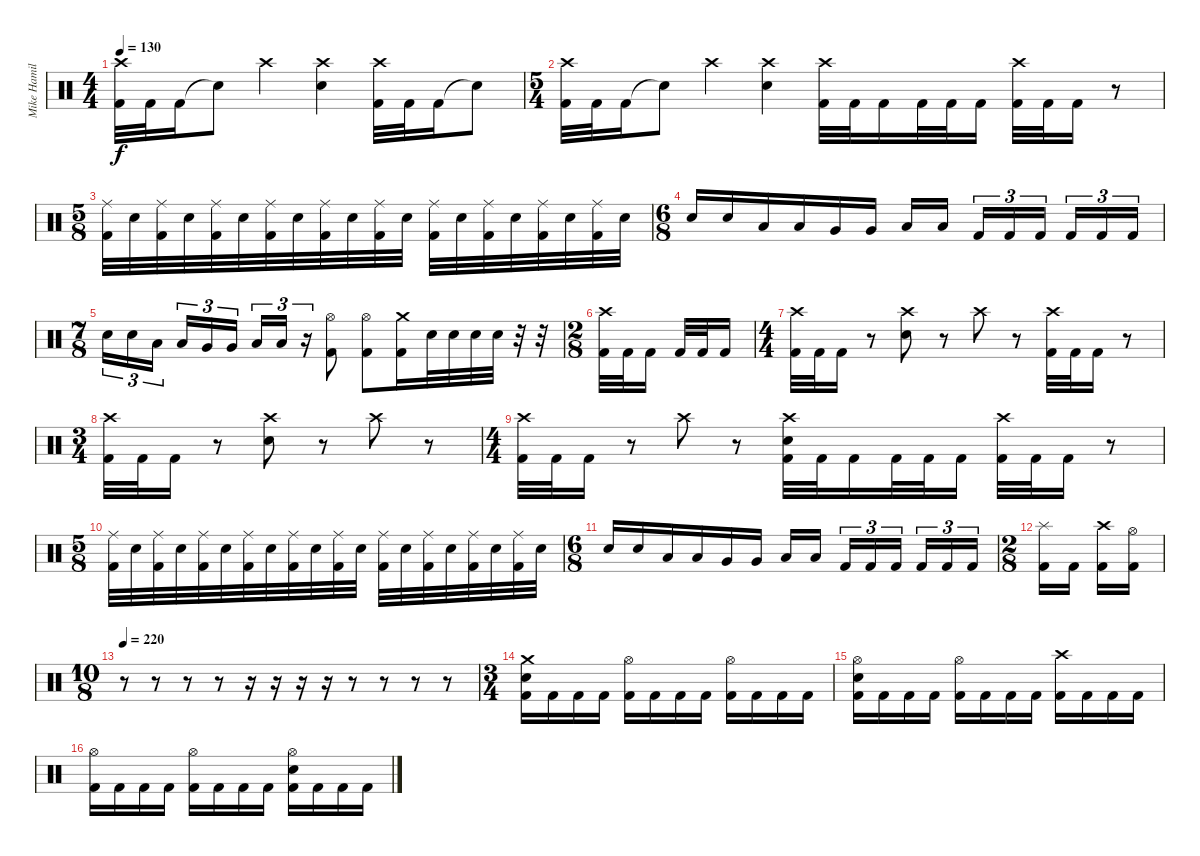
\track ("Mike Hamilton" "Mike Hamil") {instrument percussion}
\staff {score}
\articulation defaults
\ts (4 4)
\tempo 130
\clef neutral
\ks c
("Crash high (hit)" "Kick (hit) 2").32{dy f} "Kick (hit) 2".32 "Kick (hit) 2".16 "Snare (hit)"{t}.8 "Crash high (hit)".4 ("Crash high (hit)" "Electric Snare (hit)").4 ("Crash high (hit)" "Kick (hit) 2").32 "Kick (hit) 2".32 "Kick (hit) 2".16 "Snare (hit)"{t}.8 |
\ts (5 4)
("Crash high (hit)" "Kick (hit) 2").32 "Kick (hit) 2".32 "Kick (hit) 2".16 "Snare (hit)"{t}.8 "Crash high (hit)".4 ("Crash high (hit)" "Electric Snare (hit)").4 ("Crash high (hit)" "Kick (hit) 2").32 "Kick (hit) 2".32 "Kick (hit) 2".16 "Kick (hit) 2".32 "Kick (hit) 2".32 "Kick (hit) 2".16 ("Crash high (hit)" "Kick (hit) 2").32 "Kick (hit) 2".32 "Kick (hit) 2".16 r.8 |
\ts (5 8)
("Ride (middle)" "Kick (hit) 2").32 "Electric Snare (hit)".32 ("Ride (middle)" "Kick (hit) 2").32 "Electric Snare (hit)".32 ("Ride (middle)" "Kick (hit) 2").32 "Electric Snare (hit)".32 ("Ride (middle)" "Kick (hit) 2").32 "Electric Snare (hit)".32 ("Ride (middle)" "Kick (hit) 2").32 "Electric Snare (hit)".32 ("Ride (middle)" "Kick (hit) 2").32 "Electric Snare (hit)".32 ("Ride (middle)" "Kick (hit) 2").32 "Electric Snare (hit)".32 ("Ride (middle)" "Kick (hit) 2").32 "Electric Snare (hit)".32 ("Ride (middle)" "Kick (hit) 2").32 "Electric Snare (hit)".32 ("Ride (middle)" "Kick (hit) 2").32 "Electric Snare (hit)".32 |
\ts (6 8)
"Electric Snare (hit)".16 "Electric Snare (hit)".16 "Low Tom (hit)".16 "Low Tom (hit)".16 "Very Low Tom (hit)".16 "Very Low Tom (hit)".16 "Low Floor Tom (hit)".16 "Low Floor Tom (hit)".16{beam splitsecondary} "Kick (hit) 2".16{tu (3 2)} "Kick (hit) 2".16{tu (3 2)} "Kick (hit) 2".16{tu (3 2) beam splitsecondary} "Kick (hit) 2".16{tu (3 2)} "Kick (hit) 2".16{tu (3 2)} "Kick (hit) 2".16{tu (3 2)} |
\ts (7 8)
"Electric Snare (hit)".16{tu (3 2)} "Electric Snare (hit)".16{tu (3 2)} "Low Tom (hit)".16{tu (3 2)} "Low Tom (hit)".16{tu (3 2)} "Very Low Tom (hit)".16{tu (3 2)} "Very Low Tom (hit)".16{tu (3 2)} "Low Floor Tom (hit)".16{tu (3 2)} "Low Floor Tom (hit)".16{tu (3 2)} r.16{tu (3 2)} ("Hi-Hat (open)" "Kick (hit) 2").8 ("Hi-Hat (open)" "Kick (hit) 2").8 ("Crash medium (hit)" "Kick (hit) 2").16 "Electric Snare (hit)".32 "Electric Snare (hit)".32 "Electric Snare (hit)".32 "Electric Snare (hit)".32 r.32 r.32 |
\ts (2 8)
("Crash high (hit)" "Kick (hit) 2").32 "Kick (hit) 2".32 "Kick (hit) 2".16 "Kick (hit) 2".32 "Kick (hit) 2".32 "Kick (hit) 2".16 |
\ts (4 4)
("Crash high (hit)" "Kick (hit) 2").32 "Kick (hit) 2".32 "Kick (hit) 2".16 r.8 ("Crash high (hit)" "Electric Snare (hit)").8 r.8 "Crash high (hit)".8 r.8 ("Crash high (hit)" "Kick (hit) 2").32 "Kick (hit) 2".32 "Kick (hit) 2".16 r.8 |
\ts (3 4)
("Crash high (hit)" "Kick (hit) 2").32 "Kick (hit) 2".32 "Kick (hit) 2".16 r.8 ("Crash high (hit)" "Electric Snare (hit)").8 r.8 "Crash high (hit)".8 r.8 |
\ts (4 4)
("Crash high (hit)" "Kick (hit) 2").32 "Kick (hit) 2".32 "Kick (hit) 2".16 r.8 "Crash high (hit)".8 r.8 ("Crash high (hit)" "Electric Snare (hit)" "Kick (hit) 2").32 "Kick (hit) 2".32 "Kick (hit) 2".16 "Kick (hit) 2".32 "Kick (hit) 2".32 "Kick (hit) 2".16 ("Crash high (hit)" "Kick (hit) 2").32 "Kick (hit) 2".32 "Kick (hit) 2".16 r.8 |
\ts (5 8)
("Ride (middle)" "Kick (hit) 2").32 "Electric Snare (hit)".32 ("Ride (middle)" "Kick (hit) 2").32 "Electric Snare (hit)".32 ("Ride (middle)" "Kick (hit) 2").32 "Electric Snare (hit)".32 ("Ride (middle)" "Kick (hit) 2").32 "Electric Snare (hit)".32 ("Ride (middle)" "Kick (hit) 2").32 "Electric Snare (hit)".32 ("Ride (middle)" "Kick (hit) 2").32 "Electric Snare (hit)".32 ("Ride (middle)" "Kick (hit) 2").32 "Electric Snare (hit)".32 ("Ride (middle)" "Kick (hit) 2").32 "Electric Snare (hit)".32 ("Ride (middle)" "Kick (hit) 2").32 "Electric Snare (hit)".32 ("Ride (middle)" "Kick (hit) 2").32 "Electric Snare (hit)".32 |
\ts (6 8)
"Electric Snare (hit)".16 "Electric Snare (hit)".16 "Low Tom (hit)".16 "Low Tom (hit)".16 "Very Low Tom (hit)".16 "Very Low Tom (hit)".16 "Low Floor Tom (hit)".16 "Low Floor Tom (hit)".16{beam splitsecondary} "Kick (hit) 2".16{tu (3 2)} "Kick (hit) 2".16{tu (3 2)} "Kick (hit) 2".16{tu (3 2) beam splitsecondary} "Kick (hit) 2".16{tu (3 2)} "Kick (hit) 2".16{tu (3 2)} "Kick (hit) 2".16{tu (3 2)} |
\ts (2 8)
("Splash (hit)" "Kick (hit) 2").16 "Kick (hit) 2".16 ("Crash high (hit)" "Kick (hit) 2").16 ("Hi-Hat (open)" "Kick (hit) 2").16 |
\ts (10 8)
\tempo 220
r.8 r.8 r.8 r.8 r.16 r.16 r.16 r.16 r.8 r.8 r.8 r.8 |
\ts (3 4)
("Crash medium (hit)" "Electric Snare (hit)" "Kick (hit) 2").16 "Kick (hit) 2".16 "Kick (hit) 2".16 "Kick (hit) 2".16 ("Hi-Hat (open)" "Kick (hit) 2").16 "Kick (hit) 2".16 "Kick (hit) 2".16 "Kick (hit) 2".16 ("Hi-Hat (open)" "Kick (hit) 2").16 "Kick (hit) 2".16 "Kick (hit) 2".16 "Kick (hit) 2".16 |
("Hi-Hat (open)" "Electric Snare (hit)" "Kick (hit) 2").16 "Kick (hit) 2".16 "Kick (hit) 2".16 "Kick (hit) 2".16 ("Hi-Hat (open)" "Kick (hit) 2").16 "Kick (hit) 2".16 "Kick (hit) 2".16 "Kick (hit) 2".16 ("Crash high (hit)" "Kick (hit) 2").16 "Kick (hit) 2".16 "Kick (hit) 2".16 "Kick (hit) 2".16 |
("Hi-Hat (open)" "Kick (hit) 2").16 "Kick (hit) 2".16 "Kick (hit) 2".16 "Kick (hit) 2".16 ("Hi-Hat (open)" "Kick (hit) 2").16 "Kick (hit) 2".16 "Kick (hit) 2".16 "Kick (hit) 2".16 ("Hi-Hat (open)" "Electric Snare (hit)" "Kick (hit) 2").16 "Kick (hit) 2".16 "Kick (hit) 2".16 "Kick (hit) 2".16
